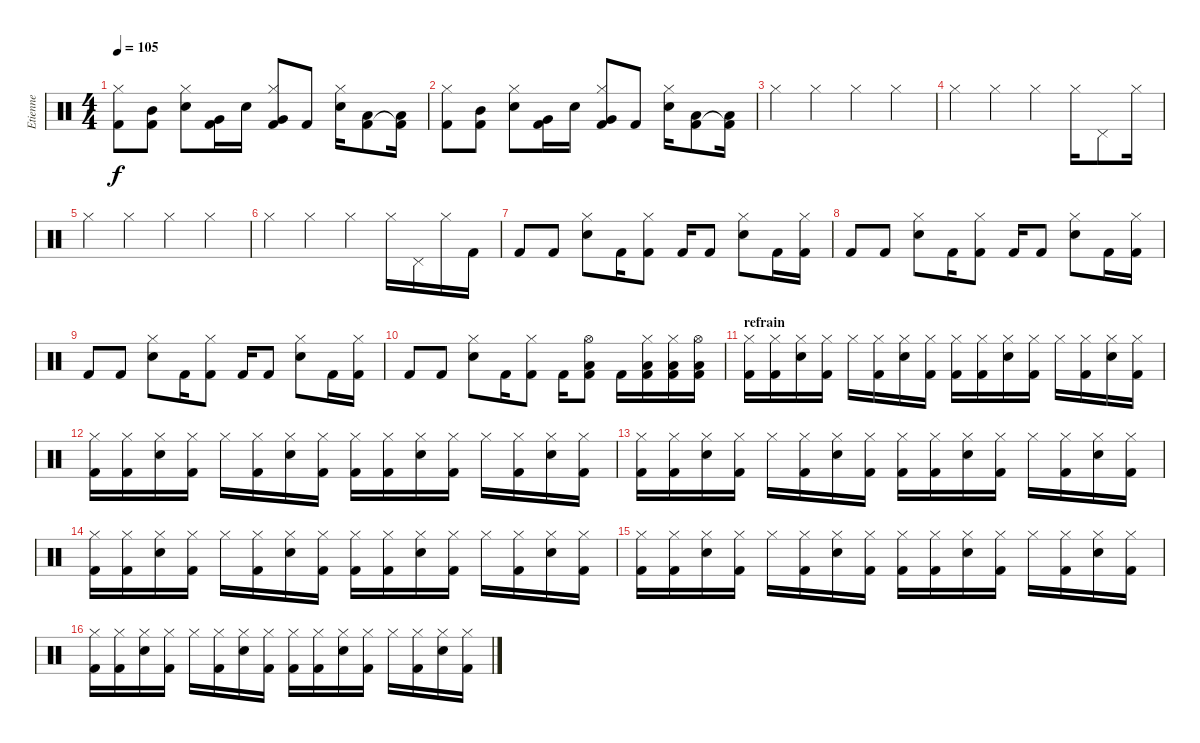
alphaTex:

\track ("Etienne" "Etienne") {instrument percussion}
\staff {score}
\articulation defaults
\ts (4 4)
\tempo 105
\clef neutral
\ks c
("Kick (hit) 2" "Hi-Hat (closed)").8{dy f} ("Kick (hit) 2" "Mid Tom (hit)").8 ("Snare (hit) 2" "Hi-Hat (closed)").8 ("Kick (hit) 2" "Very Low Tom (hit)").16 "Snare (hit) 2".16 ("Kick (hit) 2" "Hi-Hat (closed)" "Very Low Tom (hit)").8 "Kick (hit) 2".8 ("Snare (hit) 2" "Hi-Hat (closed)").16 ("Kick (hit) 2" "Low Floor Tom (hit)").8 ("Kick (hit) 2"{t} "Low Floor Tom (hit)").16 |
("Kick (hit) 2" "Hi-Hat (closed)").8 ("Kick (hit) 2" "Mid Tom (hit)").8 ("Snare (hit) 2" "Hi-Hat (closed)").8 ("Kick (hit) 2" "Very Low Tom (hit)").16 "Snare (hit) 2".16 ("Kick (hit) 2" "Hi-Hat (closed)" "Very Low Tom (hit)").8 "Kick (hit) 2".8 ("Snare (hit) 2" "Hi-Hat (closed)").16 ("Kick (hit) 2" "Low Floor Tom (hit)").8 ("Kick (hit) 2"{t} "Low Floor Tom (hit)").16 |
"Hi-Hat (closed)".4 "Hi-Hat (closed)".4 "Hi-Hat (closed)".4 "Hi-Hat (closed)".4 |
"Hi-Hat (closed)".4 "Hi-Hat (closed)".4 "Hi-Hat (closed)".4 "Hi-Hat (closed)".16 "Pedal Hi-Hat (hit)".8 "Hi-Hat (closed)".16 |
"Hi-Hat (closed)".4 "Hi-Hat (closed)".4 "Hi-Hat (closed)".4 "Hi-Hat (closed)".4 |
"Hi-Hat (closed)".4 "Hi-Hat (closed)".4 "Hi-Hat (closed)".4 "Hi-Hat (closed)".16 "Pedal Hi-Hat (hit)".16 "Hi-Hat (closed)".16 "Kick (hit) 2".16 |
"Kick (hit) 2".8 "Kick (hit) 2".8 ("Electric Snare (hit)" "Hi-Hat (closed)").8 "Kick (hit) 2".16 ("Kick (hit) 2" "Hi-Hat (closed)").8 "Kick (hit) 2".16 "Kick (hit) 2".8 ("Electric Snare (hit)" "Hi-Hat (closed)").8 "Kick (hit) 2".16 ("Kick (hit) 2" "Hi-Hat (closed)").16 |
"Kick (hit) 2".8 "Kick (hit) 2".8 ("Electric Snare (hit)" "Hi-Hat (closed)").8 "Kick (hit) 2".16 ("Kick (hit) 2" "Hi-Hat (closed)").8 "Kick (hit) 2".16 "Kick (hit) 2".8 ("Electric Snare (hit)" "Hi-Hat (closed)").8 "Kick (hit) 2".16 ("Kick (hit) 2" "Hi-Hat (closed)").16 |
"Kick (hit) 2".8 "Kick (hit) 2".8 ("Electric Snare (hit)" "Hi-Hat (closed)").8 "Kick (hit) 2".16 ("Kick (hit) 2" "Hi-Hat (closed)").8 "Kick (hit) 2".16 "Kick (hit) 2".8 ("Electric Snare (hit)" "Hi-Hat (closed)").8 "Kick (hit) 2".16 ("Kick (hit) 2" "Hi-Hat (closed)").16 |
"Kick (hit) 2".8 "Kick (hit) 2".8 ("Electric Snare (hit)" "Hi-Hat (closed)").8 "Kick (hit) 2".16 ("Kick (hit) 2" "Hi-Hat (closed)").8 "Kick (hit) 2".16 ("Kick (hit) 2" "Hi-Hat (open)" "Low Floor Tom (hit)").8 "Kick (hit) 2".16 ("Kick (hit) 2" "Hi-Hat (closed)" "Low Floor Tom (hit)").16 ("Kick (hit) 2" "Hi-Hat (closed)" "Low Floor Tom (hit)").16 ("Kick (hit) 2" "Hi-Hat (open)" "Low Floor Tom (hit)").16 |
\section ("" "refrain")
("Hi-Hat (closed)" "Kick (hit) 2").16 ("Hi-Hat (closed)" "Kick (hit) 2").16 ("Hi-Hat (closed)" "Electric Snare (hit)").16 ("Hi-Hat (closed)" "Kick (hit) 2").16 "Hi-Hat (closed)".16 ("Hi-Hat (closed)" "Kick (hit) 2").16 ("Hi-Hat (closed)" "Electric Snare (hit)").16 ("Hi-Hat (closed)" "Kick (hit) 2").16 ("Hi-Hat (closed)" "Kick (hit) 2").16 ("Hi-Hat (closed)" "Kick (hit) 2").16 ("Hi-Hat (closed)" "Electric Snare (hit)").16 ("Hi-Hat (closed)" "Kick (hit) 2").16 "Hi-Hat (closed)".16 ("Hi-Hat (closed)" "Kick (hit) 2").16 ("Hi-Hat (closed)" "Electric Snare (hit)").16 ("Hi-Hat (closed)" "Kick (hit) 2").16 |
("Hi-Hat (closed)" "Kick (hit) 2").16 ("Hi-Hat (closed)" "Kick (hit) 2").16 ("Hi-Hat (closed)" "Electric Snare (hit)").16 ("Hi-Hat (closed)" "Kick (hit) 2").16 "Hi-Hat (closed)".16 ("Hi-Hat (closed)" "Kick (hit) 2").16 ("Hi-Hat (closed)" "Electric Snare (hit)").16 ("Hi-Hat (closed)" "Kick (hit) 2").16 ("Hi-Hat (closed)" "Kick (hit) 2").16 ("Hi-Hat (closed)" "Kick (hit) 2").16 ("Hi-Hat (closed)" "Electric Snare (hit)").16 ("Hi-Hat (closed)" "Kick (hit) 2").16 "Hi-Hat (closed)".16 ("Hi-Hat (closed)" "Kick (hit) 2").16 ("Hi-Hat (closed)" "Electric Snare (hit)").16 ("Hi-Hat (closed)" "Kick (hit) 2").16 |
("Hi-Hat (closed)" "Kick (hit) 2").16 ("Hi-Hat (closed)" "Kick (hit) 2").16 ("Hi-Hat (closed)" "Electric Snare (hit)").16 ("Hi-Hat (closed)" "Kick (hit) 2").16 "Hi-Hat (closed)".16 ("Hi-Hat (closed)" "Kick (hit) 2").16 ("Hi-Hat (closed)" "Electric Snare (hit)").16 ("Hi-Hat (closed)" "Kick (hit) 2").16 ("Hi-Hat (closed)" "Kick (hit) 2").16 ("Hi-Hat (closed)" "Kick (hit) 2").16 ("Hi-Hat (closed)" "Electric Snare (hit)").16 ("Hi-Hat (closed)" "Kick (hit) 2").16 "Hi-Hat (closed)".16 ("Hi-Hat (closed)" "Kick (hit) 2").16 ("Hi-Hat (closed)" "Electric Snare (hit)").16 ("Hi-Hat (closed)" "Kick (hit) 2").16 |
("Hi-Hat (closed)" "Kick (hit) 2").16 ("Hi-Hat (closed)" "Kick (hit) 2").16 ("Hi-Hat (closed)" "Electric Snare (hit)").16 ("Hi-Hat (closed)" "Kick (hit) 2").16 "Hi-Hat (closed)".16 ("Hi-Hat (closed)" "Kick (hit) 2").16 ("Hi-Hat (closed)" "Electric Snare (hit)").16 ("Hi-Hat (closed)" "Kick (hit) 2").16 ("Hi-Hat (closed)" "Kick (hit) 2").16 ("Hi-Hat (closed)" "Kick (hit) 2").16 ("Hi-Hat (closed)" "Electric Snare (hit)").16 ("Hi-Hat (closed)" "Kick (hit) 2").16 "Hi-Hat (closed)".16 ("Hi-Hat (closed)" "Kick (hit) 2").16 ("Hi-Hat (closed)" "Electric Snare (hit)").16 ("Hi-Hat (closed)" "Kick (hit) 2").16 |
("Hi-Hat (closed)" "Kick (hit) 2").16 ("Hi-Hat (closed)" "Kick (hit) 2").16 ("Hi-Hat (closed)" "Electric Snare (hit)").16 ("Hi-Hat (closed)" "Kick (hit) 2").16 "Hi-Hat (closed)".16 ("Hi-Hat (closed)" "Kick (hit) 2").16 ("Hi-Hat (closed)" "Electric Snare (hit)").16 ("Hi-Hat (closed)" "Kick (hit) 2").16 ("Hi-Hat (closed)" "Kick (hit) 2").16 ("Hi-Hat (closed)" "Kick (hit) 2").16 ("Hi-Hat (closed)" "Electric Snare (hit)").16 ("Hi-Hat (closed)" "Kick (hit) 2").16 "Hi-Hat (closed)".16 ("Hi-Hat (closed)" "Kick (hit) 2").16 ("Hi-Hat (closed)" "Electric Snare (hit)").16 ("Hi-Hat (closed)" "Kick (hit) 2").16 |
("Hi-Hat (closed)" "Kick (hit) 2").16 ("Hi-Hat (closed)" "Kick (hit) 2").16 ("Hi-Hat (closed)" "Electric Snare (hit)").16 ("Hi-Hat (closed)" "Kick (hit) 2").16 "Hi-Hat (closed)".16 ("Hi-Hat (closed)" "Kick (hit) 2").16 ("Hi-Hat (closed)" "Electric Snare (hit)").16 ("Hi-Hat (closed)" "Kick (hit) 2").16 ("Hi-Hat (closed)" "Kick (hit) 2").16 ("Hi-Hat (closed)" "Kick (hit) 2").16 ("Hi-Hat (closed)" "Electric Snare (hit)").16 ("Hi-Hat (closed)" "Kick (hit) 2").16 "Hi-Hat (closed)".16 ("Hi-Hat (closed)" "Kick (hit) 2").16 ("Hi-Hat (closed)" "Electric Snare (hit)").16 ("Hi-Hat (closed)" "Kick (hit) 2").16
